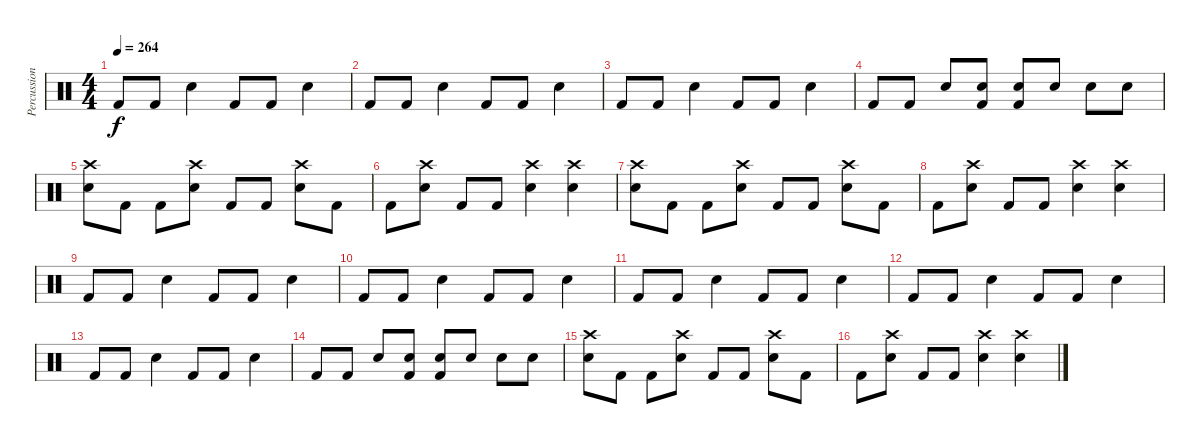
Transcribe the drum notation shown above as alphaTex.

\track ("Percussion" "Percussion") {instrument percussion}
\staff {score}
\articulation defaults
\ts (4 4)
\tempo 264
\clef neutral
\ks c "Kick (hit) 2".8{dy f} "Kick (hit) 2".8 "Snare (hit) 2".4 "Kick (hit) 2".8 "Kick (hit) 2".8 "Snare (hit) 2".4
|
"Kick (hit) 2".8 "Kick (hit) 2".8 "Snare (hit) 2".4 "Kick (hit) 2".8 "Kick (hit) 2".8 "Snare (hit) 2".4 |
"Kick (hit) 2".8 "Kick (hit) 2".8 "Snare (hit) 2".4 "Kick (hit) 2".8 "Kick (hit) 2".8 "Snare (hit) 2".4 |
"Kick (hit) 2".8 "Kick (hit) 2".8 "Snare (hit) 2".8 ("Kick (hit) 2" "Snare (hit) 2").8 ("Kick (hit) 2" "Snare (hit) 2").8 "Snare (hit) 2".8 "Snare (hit) 2".8 "Snare (hit) 2".8 |
("Crash high (hit)" "Snare (hit) 2").8 "Kick (hit) 2".8 "Kick (hit) 2".8 ("Crash high (hit)" "Snare (hit) 2").8 "Kick (hit) 2".8 "Kick (hit) 2".8 ("Crash high (hit)" "Snare (hit) 2").8 "Kick (hit) 2".8 |
"Kick (hit) 2".8 ("Crash high (hit)" "Snare (hit) 2").8 "Kick (hit) 2".8 "Kick (hit) 2".8 ("Crash high (hit)" "Snare (hit) 2").4 ("Crash high (hit)" "Snare (hit) 2").4 |
("Crash high (hit)" "Snare (hit) 2").8 "Kick (hit) 2".8 "Kick (hit) 2".8 ("Crash high (hit)" "Snare (hit) 2").8 "Kick (hit) 2".8 "Kick (hit) 2".8 ("Crash high (hit)" "Snare (hit) 2").8 "Kick (hit) 2".8 |
"Kick (hit) 2".8 ("Crash high (hit)" "Snare (hit) 2").8 "Kick (hit) 2".8 "Kick (hit) 2".8 ("Crash high (hit)" "Snare (hit) 2").4 ("Crash high (hit)" "Snare (hit) 2").4 |
"Kick (hit) 2".8 "Kick (hit) 2".8 "Snare (hit) 2".4 "Kick (hit) 2".8 "Kick (hit) 2".8 "Snare (hit) 2".4 |
"Kick (hit) 2".8 "Kick (hit) 2".8 "Snare (hit) 2".4 "Kick (hit) 2".8 "Kick (hit) 2".8 "Snare (hit) 2".4 |
"Kick (hit) 2".8 "Kick (hit) 2".8 "Snare (hit) 2".4 "Kick (hit) 2".8 "Kick (hit) 2".8 "Snare (hit) 2".4 |
"Kick (hit) 2".8 "Kick (hit) 2".8 "Snare (hit) 2".4 "Kick (hit) 2".8 "Kick (hit) 2".8 "Snare (hit) 2".4 |
"Kick (hit) 2".8 "Kick (hit) 2".8 "Snare (hit) 2".4 "Kick (hit) 2".8 "Kick (hit) 2".8 "Snare (hit) 2".4 |
"Kick (hit) 2".8 "Kick (hit) 2".8 "Snare (hit) 2".8 ("Kick (hit) 2" "Snare (hit) 2").8 ("Kick (hit) 2" "Snare (hit) 2").8 "Snare (hit) 2".8 "Snare (hit) 2".8 "Snare (hit) 2".8 |
("Crash high (hit)" "Snare (hit) 2").8 "Kick (hit) 2".8 "Kick (hit) 2".8 ("Crash high (hit)" "Snare (hit) 2").8 "Kick (hit) 2".8 "Kick (hit) 2".8 ("Crash high (hit)" "Snare (hit) 2").8 "Kick (hit) 2".8 |
"Kick (hit) 2".8 ("Crash high (hit)" "Snare (hit) 2").8 "Kick (hit) 2".8 "Kick (hit) 2".8 ("Crash high (hit)" "Snare (hit) 2").4 ("Crash high (hit)" "Snare (hit) 2").4
